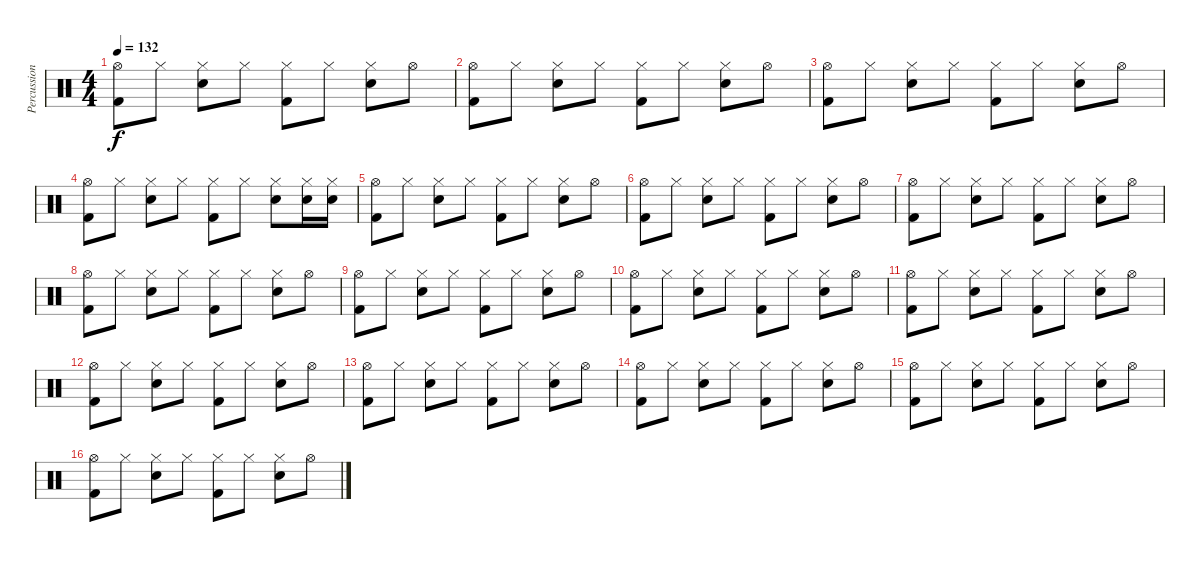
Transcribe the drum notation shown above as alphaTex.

\track ("Percussions" "Percussion") {instrument percussion}
\staff {score}
\articulation defaults
\ts (4 4)
\tempo 132
\clef neutral
\ks c
("Hi-Hat (open)" "Kick (hit) 2").8{dy f} "Hi-Hat (closed)".8 ("Hi-Hat (closed)" "Snare (hit) 2").8 "Hi-Hat (closed)".8 ("Hi-Hat (closed)" "Kick (hit) 2").8 "Hi-Hat (closed)".8 ("Hi-Hat (closed)" "Snare (hit) 2").8 "Hi-Hat (open)".8 |
("Hi-Hat (open)" "Kick (hit) 2").8 "Hi-Hat (closed)".8 ("Hi-Hat (closed)" "Snare (hit) 2").8 "Hi-Hat (closed)".8 ("Hi-Hat (closed)" "Kick (hit) 2").8 "Hi-Hat (closed)".8 ("Hi-Hat (closed)" "Snare (hit) 2").8 "Hi-Hat (open)".8 |
("Hi-Hat (open)" "Kick (hit) 2").8 "Hi-Hat (closed)".8 ("Hi-Hat (closed)" "Snare (hit) 2").8 "Hi-Hat (closed)".8 ("Hi-Hat (closed)" "Kick (hit) 2").8 "Hi-Hat (closed)".8 ("Hi-Hat (closed)" "Snare (hit) 2").8 "Hi-Hat (open)".8 |
("Hi-Hat (open)" "Kick (hit) 2").8 "Hi-Hat (closed)".8 ("Hi-Hat (closed)" "Snare (hit) 2").8 "Hi-Hat (closed)".8 ("Hi-Hat (closed)" "Kick (hit) 2").8 "Hi-Hat (closed)".8 ("Hi-Hat (closed)" "Snare (hit) 2").8 ("Hi-Hat (closed)" "Snare (hit) 2").16 ("Hi-Hat (closed)" "Snare (hit) 2").16 |
("Hi-Hat (open)" "Kick (hit) 2").8 "Hi-Hat (closed)".8 ("Hi-Hat (closed)" "Snare (hit) 2").8 "Hi-Hat (closed)".8 ("Hi-Hat (closed)" "Kick (hit) 2").8 "Hi-Hat (closed)".8 ("Hi-Hat (closed)" "Snare (hit) 2").8 "Hi-Hat (open)".8 |
("Hi-Hat (open)" "Kick (hit) 2").8 "Hi-Hat (closed)".8 ("Hi-Hat (closed)" "Snare (hit) 2").8 "Hi-Hat (closed)".8 ("Hi-Hat (closed)" "Kick (hit) 2").8 "Hi-Hat (closed)".8 ("Hi-Hat (closed)" "Snare (hit) 2").8 "Hi-Hat (open)".8 |
("Hi-Hat (open)" "Kick (hit) 2").8 "Hi-Hat (closed)".8 ("Hi-Hat (closed)" "Snare (hit) 2").8 "Hi-Hat (closed)".8 ("Hi-Hat (closed)" "Kick (hit) 2").8 "Hi-Hat (closed)".8 ("Hi-Hat (closed)" "Snare (hit) 2").8 "Hi-Hat (open)".8 |
("Hi-Hat (open)" "Kick (hit) 2").8 "Hi-Hat (closed)".8 ("Hi-Hat (closed)" "Snare (hit) 2").8 "Hi-Hat (closed)".8 ("Hi-Hat (closed)" "Kick (hit) 2").8 "Hi-Hat (closed)".8 ("Hi-Hat (closed)" "Snare (hit) 2").8 "Hi-Hat (open)".8 |
("Hi-Hat (open)" "Kick (hit) 2").8 "Hi-Hat (closed)".8 ("Hi-Hat (closed)" "Snare (hit) 2").8 "Hi-Hat (closed)".8 ("Hi-Hat (closed)" "Kick (hit) 2").8 "Hi-Hat (closed)".8 ("Hi-Hat (closed)" "Snare (hit) 2").8 "Hi-Hat (open)".8 |
("Hi-Hat (open)" "Kick (hit) 2").8 "Hi-Hat (closed)".8 ("Hi-Hat (closed)" "Snare (hit) 2").8 "Hi-Hat (closed)".8 ("Hi-Hat (closed)" "Kick (hit) 2").8 "Hi-Hat (closed)".8 ("Hi-Hat (closed)" "Snare (hit) 2").8 "Hi-Hat (open)".8 |
("Hi-Hat (open)" "Kick (hit) 2").8 "Hi-Hat (closed)".8 ("Hi-Hat (closed)" "Snare (hit) 2").8 "Hi-Hat (closed)".8 ("Hi-Hat (closed)" "Kick (hit) 2").8 "Hi-Hat (closed)".8 ("Hi-Hat (closed)" "Snare (hit) 2").8 "Hi-Hat (open)".8 |
("Hi-Hat (open)" "Kick (hit) 2").8 "Hi-Hat (closed)".8 ("Hi-Hat (closed)" "Snare (hit) 2").8 "Hi-Hat (closed)".8 ("Hi-Hat (closed)" "Kick (hit) 2").8 "Hi-Hat (closed)".8 ("Hi-Hat (closed)" "Snare (hit) 2").8 "Hi-Hat (open)".8 |
("Hi-Hat (open)" "Kick (hit) 2").8 "Hi-Hat (closed)".8 ("Hi-Hat (closed)" "Snare (hit) 2").8 "Hi-Hat (closed)".8 ("Hi-Hat (closed)" "Kick (hit) 2").8 "Hi-Hat (closed)".8 ("Hi-Hat (closed)" "Snare (hit) 2").8 "Hi-Hat (open)".8 |
("Hi-Hat (open)" "Kick (hit) 2").8 "Hi-Hat (closed)".8 ("Hi-Hat (closed)" "Snare (hit) 2").8 "Hi-Hat (closed)".8 ("Hi-Hat (closed)" "Kick (hit) 2").8 "Hi-Hat (closed)".8 ("Hi-Hat (closed)" "Snare (hit) 2").8 "Hi-Hat (open)".8 |
("Hi-Hat (open)" "Kick (hit) 2").8 "Hi-Hat (closed)".8 ("Hi-Hat (closed)" "Snare (hit) 2").8 "Hi-Hat (closed)".8 ("Hi-Hat (closed)" "Kick (hit) 2").8 "Hi-Hat (closed)".8 ("Hi-Hat (closed)" "Snare (hit) 2").8 "Hi-Hat (open)".8 |
("Hi-Hat (open)" "Kick (hit) 2").8 "Hi-Hat (closed)".8 ("Hi-Hat (closed)" "Snare (hit) 2").8 "Hi-Hat (closed)".8 ("Hi-Hat (closed)" "Kick (hit) 2").8 "Hi-Hat (closed)".8 ("Hi-Hat (closed)" "Snare (hit) 2").8 "Hi-Hat (open)".8
